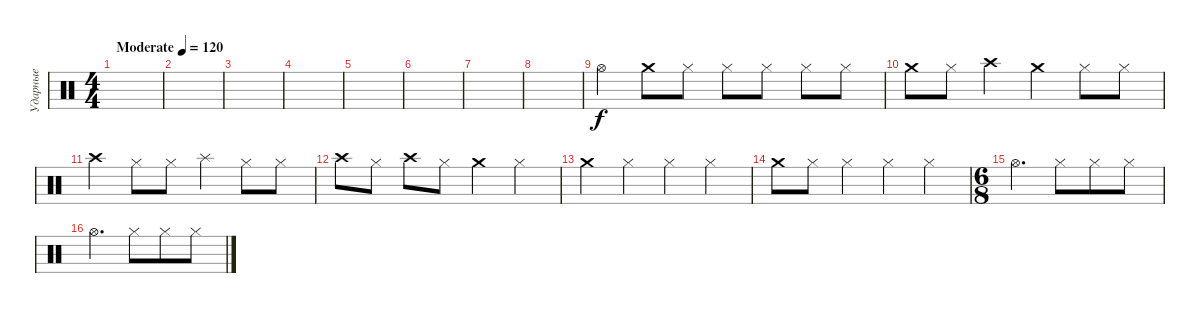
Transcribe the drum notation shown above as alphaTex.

\track ("Ударные" "Ударные") {instrument percussion}
\staff {score}
\articulation defaults
\ts (4 4)
\tempo (120 "Moderate")
\clef neutral
\ks c
|
|
|
|
|
|
|
|
"Hi-Hat (open)".4 "Crash medium (hit)".8 "Hi-Hat (closed)".8 "Hi-Hat (closed)".8 "Hi-Hat (closed)".8 "Hi-Hat (closed)".8 "Hi-Hat (closed)".8 |
"Crash medium (hit)".8 "Hi-Hat (closed)".8 "Crash high (hit)".4 "Crash medium (hit)".4 "Hi-Hat (closed)".8 "Hi-Hat (closed)".8 |
"Crash high (hit)".4 "Hi-Hat (closed)".8 "Hi-Hat (closed)".8 "Splash (hit)".4 "Hi-Hat (closed)".8 "Hi-Hat (closed)".8 |
"Crash high (hit)".8 "Hi-Hat (closed)".8 "Crash high (hit)".8 "Hi-Hat (closed)".8 "Crash medium (hit)".4 "Hi-Hat (closed)".4 |
"Crash medium (hit)".4 "Hi-Hat (closed)".4 "Hi-Hat (closed)".4 "Hi-Hat (closed)".4 |
"Crash medium (hit)".8 "Hi-Hat (closed)".8 "Hi-Hat (closed)".4 "Hi-Hat (closed)".4 "Hi-Hat (closed)".4 |
\ts (6 8)
"Hi-Hat (open)".4{d} "Hi-Hat (closed)".8 "Hi-Hat (closed)".8 "Hi-Hat (closed)".8 |
"Hi-Hat (open)".4{d} "Hi-Hat (closed)".8 "Hi-Hat (closed)".8 "Hi-Hat (closed)".8
